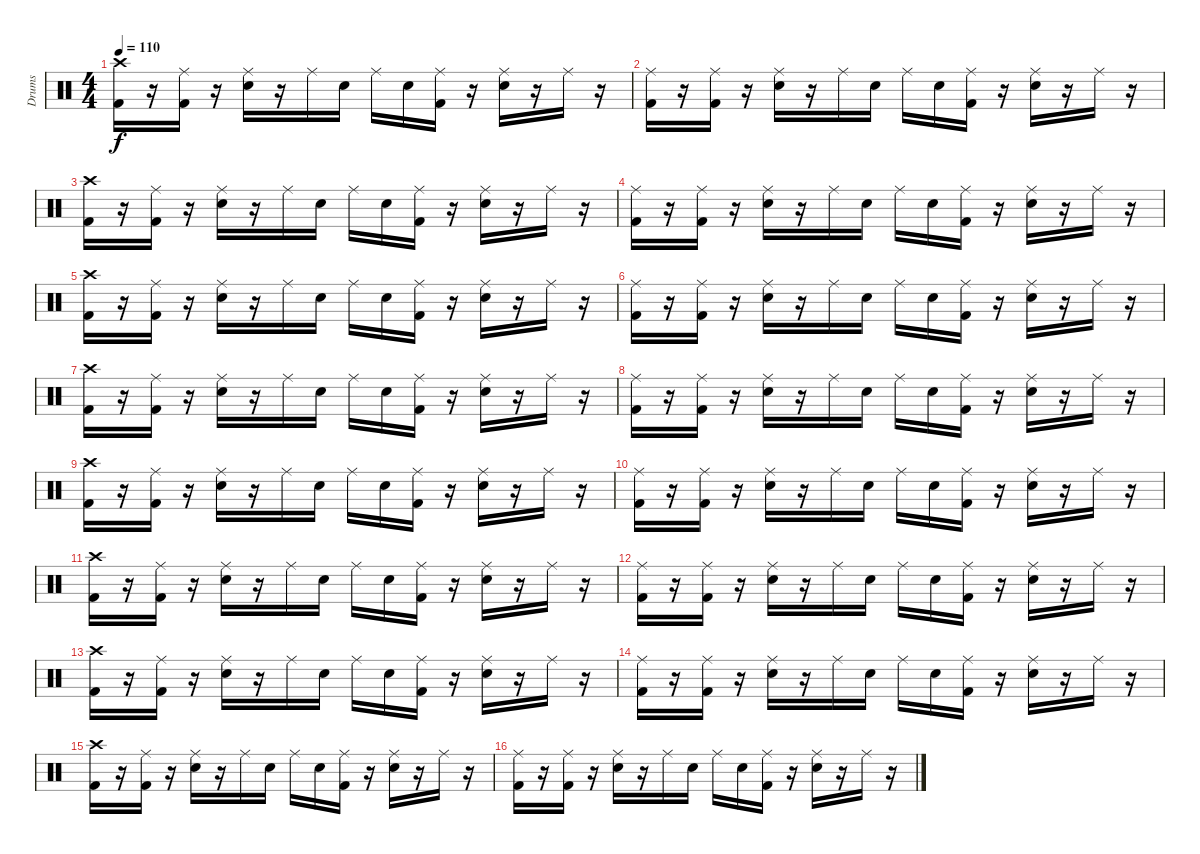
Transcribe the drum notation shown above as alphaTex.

\track ("Drums" "Drums") {instrument percussion}
\staff {score}
\articulation defaults
\ts (4 4)
\tempo 110
\clef neutral
\ks c
("Crash high (hit)" "Kick (hit) 2").16{dy f} r.16 ("Ride (middle)" "Kick (hit) 2").16 r.16 ("Ride (middle)" "Electric Snare (hit)").16 r.16 "Ride (middle)".16 "Electric Snare (hit)".16 "Ride (middle)".16 "Electric Snare (hit)".16 ("Ride (middle)" "Kick (hit) 2").16 r.16 ("Ride (middle)" "Electric Snare (hit)").16 r.16 "Ride (middle)".16 r.16 |
("Ride (middle)" "Kick (hit) 2").16 r.16 ("Ride (middle)" "Kick (hit) 2").16 r.16 ("Ride (middle)" "Electric Snare (hit)").16 r.16 "Ride (middle)".16 "Electric Snare (hit)".16 "Ride (middle)".16 "Electric Snare (hit)".16 ("Ride (middle)" "Kick (hit) 2").16 r.16 ("Ride (middle)" "Electric Snare (hit)").16 r.16 "Ride (middle)".16 r.16 |
("Crash high (hit)" "Kick (hit) 2").16 r.16 ("Ride (middle)" "Kick (hit) 2").16 r.16 ("Ride (middle)" "Electric Snare (hit)").16 r.16 "Ride (middle)".16 "Electric Snare (hit)".16 "Ride (middle)".16 "Electric Snare (hit)".16 ("Ride (middle)" "Kick (hit) 2").16 r.16 ("Ride (middle)" "Electric Snare (hit)").16 r.16 "Ride (middle)".16 r.16 |
("Ride (middle)" "Kick (hit) 2").16 r.16 ("Ride (middle)" "Kick (hit) 2").16 r.16 ("Ride (middle)" "Electric Snare (hit)").16 r.16 "Ride (middle)".16 "Electric Snare (hit)".16 "Ride (middle)".16 "Electric Snare (hit)".16 ("Ride (middle)" "Kick (hit) 2").16 r.16 ("Ride (middle)" "Electric Snare (hit)").16 r.16 "Ride (middle)".16 r.16 |
("Crash high (hit)" "Kick (hit) 2").16 r.16 ("Ride (middle)" "Kick (hit) 2").16 r.16 ("Ride (middle)" "Electric Snare (hit)").16 r.16 "Ride (middle)".16 "Electric Snare (hit)".16 "Ride (middle)".16 "Electric Snare (hit)".16 ("Ride (middle)" "Kick (hit) 2").16 r.16 ("Ride (middle)" "Electric Snare (hit)").16 r.16 "Ride (middle)".16 r.16 |
("Ride (middle)" "Kick (hit) 2").16 r.16 ("Ride (middle)" "Kick (hit) 2").16 r.16 ("Ride (middle)" "Electric Snare (hit)").16 r.16 "Ride (middle)".16 "Electric Snare (hit)".16 "Ride (middle)".16 "Electric Snare (hit)".16 ("Ride (middle)" "Kick (hit) 2").16 r.16 ("Ride (middle)" "Electric Snare (hit)").16 r.16 "Ride (middle)".16 r.16 |
("Crash high (hit)" "Kick (hit) 2").16 r.16 ("Ride (middle)" "Kick (hit) 2").16 r.16 ("Ride (middle)" "Electric Snare (hit)").16 r.16 "Ride (middle)".16 "Electric Snare (hit)".16 "Ride (middle)".16 "Electric Snare (hit)".16 ("Ride (middle)" "Kick (hit) 2").16 r.16 ("Ride (middle)" "Electric Snare (hit)").16 r.16 "Ride (middle)".16 r.16 |
("Ride (middle)" "Kick (hit) 2").16 r.16 ("Ride (middle)" "Kick (hit) 2").16 r.16 ("Ride (middle)" "Electric Snare (hit)").16 r.16 "Ride (middle)".16 "Electric Snare (hit)".16 "Ride (middle)".16 "Electric Snare (hit)".16 ("Ride (middle)" "Kick (hit) 2").16 r.16 ("Ride (middle)" "Electric Snare (hit)").16 r.16 "Ride (middle)".16 r.16 |
("Crash high (hit)" "Kick (hit) 2").16 r.16 ("Ride (middle)" "Kick (hit) 2").16 r.16 ("Ride (middle)" "Electric Snare (hit)").16 r.16 "Ride (middle)".16 "Electric Snare (hit)".16 "Ride (middle)".16 "Electric Snare (hit)".16 ("Ride (middle)" "Kick (hit) 2").16 r.16 ("Ride (middle)" "Electric Snare (hit)").16 r.16 "Ride (middle)".16 r.16 |
("Ride (middle)" "Kick (hit) 2").16 r.16 ("Ride (middle)" "Kick (hit) 2").16 r.16 ("Ride (middle)" "Electric Snare (hit)").16 r.16 "Ride (middle)".16 "Electric Snare (hit)".16 "Ride (middle)".16 "Electric Snare (hit)".16 ("Ride (middle)" "Kick (hit) 2").16 r.16 ("Ride (middle)" "Electric Snare (hit)").16 r.16 "Ride (middle)".16 r.16 |
("Crash high (hit)" "Kick (hit) 2").16 r.16 ("Ride (middle)" "Kick (hit) 2").16 r.16 ("Ride (middle)" "Electric Snare (hit)").16 r.16 "Ride (middle)".16 "Electric Snare (hit)".16 "Ride (middle)".16 "Electric Snare (hit)".16 ("Ride (middle)" "Kick (hit) 2").16 r.16 ("Ride (middle)" "Electric Snare (hit)").16 r.16 "Ride (middle)".16 r.16 |
("Ride (middle)" "Kick (hit) 2").16 r.16 ("Ride (middle)" "Kick (hit) 2").16 r.16 ("Ride (middle)" "Electric Snare (hit)").16 r.16 "Ride (middle)".16 "Electric Snare (hit)".16 "Ride (middle)".16 "Electric Snare (hit)".16 ("Ride (middle)" "Kick (hit) 2").16 r.16 ("Ride (middle)" "Electric Snare (hit)").16 r.16 "Ride (middle)".16 r.16 |
("Crash high (hit)" "Kick (hit) 2").16 r.16 ("Ride (middle)" "Kick (hit) 2").16 r.16 ("Ride (middle)" "Electric Snare (hit)").16 r.16 "Ride (middle)".16 "Electric Snare (hit)".16 "Ride (middle)".16 "Electric Snare (hit)".16 ("Ride (middle)" "Kick (hit) 2").16 r.16 ("Ride (middle)" "Electric Snare (hit)").16 r.16 "Ride (middle)".16 r.16 |
("Ride (middle)" "Kick (hit) 2").16 r.16 ("Ride (middle)" "Kick (hit) 2").16 r.16 ("Ride (middle)" "Electric Snare (hit)").16 r.16 "Ride (middle)".16 "Electric Snare (hit)".16 "Ride (middle)".16 "Electric Snare (hit)".16 ("Ride (middle)" "Kick (hit) 2").16 r.16 ("Ride (middle)" "Electric Snare (hit)").16 r.16 "Ride (middle)".16 r.16 |
("Crash high (hit)" "Kick (hit) 2").16 r.16 ("Ride (middle)" "Kick (hit) 2").16 r.16 ("Ride (middle)" "Electric Snare (hit)").16 r.16 "Ride (middle)".16 "Electric Snare (hit)".16 "Ride (middle)".16 "Electric Snare (hit)".16 ("Ride (middle)" "Kick (hit) 2").16 r.16 ("Ride (middle)" "Electric Snare (hit)").16 r.16 "Ride (middle)".16 r.16 |
("Ride (middle)" "Kick (hit) 2").16 r.16 ("Ride (middle)" "Kick (hit) 2").16 r.16 ("Ride (middle)" "Electric Snare (hit)").16 r.16 "Ride (middle)".16 "Electric Snare (hit)".16 "Ride (middle)".16 "Electric Snare (hit)".16 ("Ride (middle)" "Kick (hit) 2").16 r.16 ("Ride (middle)" "Electric Snare (hit)").16 r.16 "Ride (middle)".16 r.16
